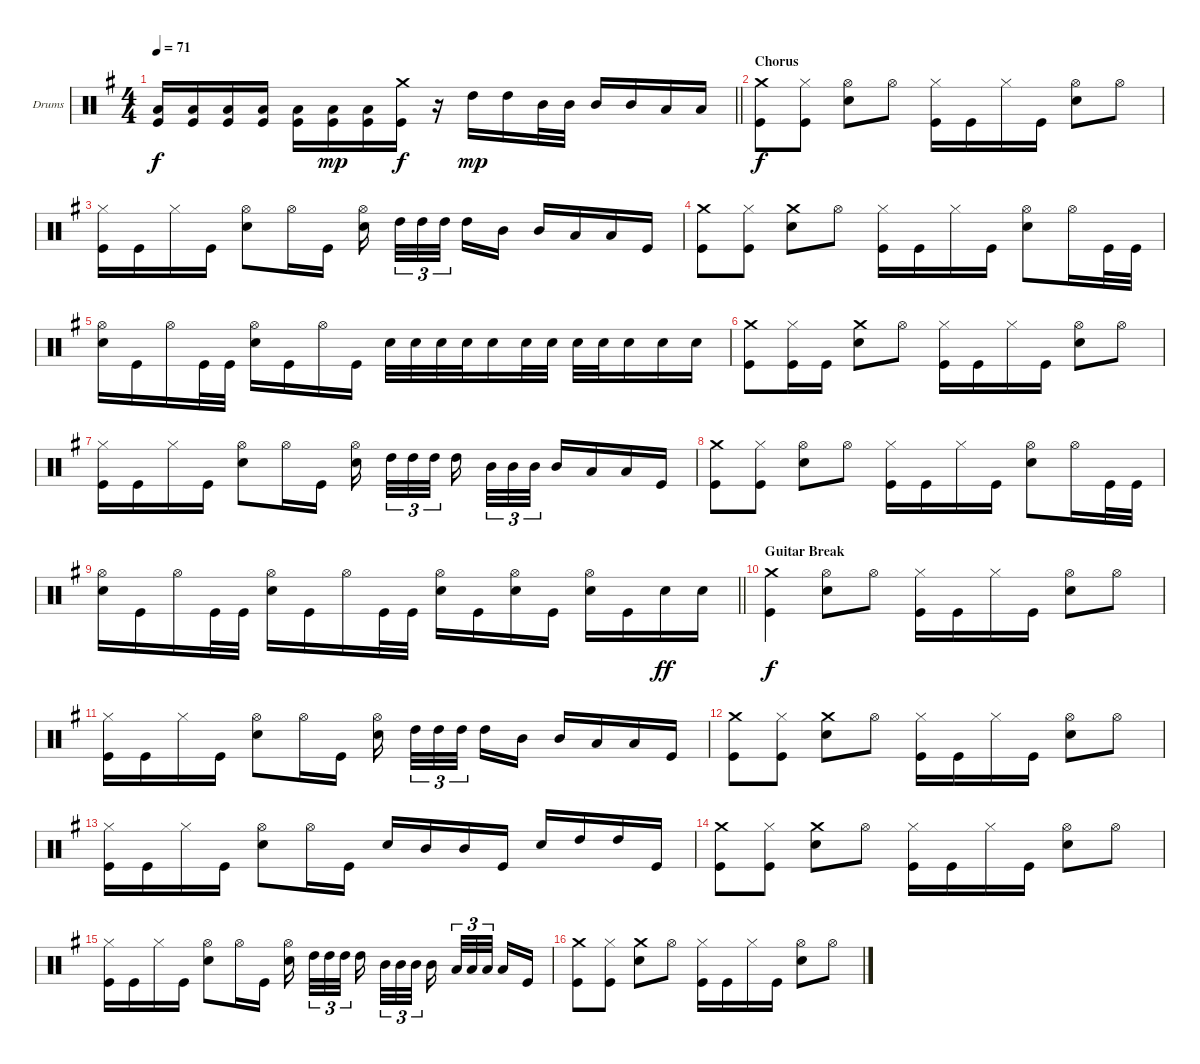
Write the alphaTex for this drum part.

\bracketExtendMode groupsimilarinstruments
\firstSystemTrackNameOrientation horizontal
\otherSystemsTrackNameOrientation horizontal
\track ("Барабаны" "Drums") {instrument percussion}
\staff {score}
\articulation defaults
\ts (4 4)
\tempo 71
\clef neutral
\barLineRight lightlight
\ks eminor
("Kick (hit)" "Low Tom (hit)").16{dy f} ("Kick (hit)" "Low Tom (hit)").16 ("Kick (hit)" "Low Tom (hit)").16 ("Kick (hit)" "Low Tom (hit)").16 ("Low Tom (hit)" "Kick (hit)").16 ("Low Tom (hit)" "Kick (hit)").16{dy mp} ("Low Tom (hit)" "Kick (hit)").16 ("Crash medium (hit)" "Kick (hit)").16{dy f} r.16 "High Tom (hit)".16{dy mp} "High Tom (hit)".16 "Mid Tom (hit)".32 "Mid Tom (hit)".32 "Mid Tom (hit)".16 "Mid Tom (hit)".16 "Low Tom (hit)".16 "Low Tom (hit)".16 |
\section ("" "Chorus")
("Kick (hit)" "Crash medium (hit)").8{dy f} ("Hi-Hat (closed)" "Kick (hit)").8 ("Hi-Hat (open)" "Snare (hit) 2").8 "Hi-Hat (open)".8 ("Kick (hit)" "Hi-Hat (closed)").16 "Kick (hit)".16 "Hi-Hat (closed)".16 "Kick (hit)".16 ("Snare (hit) 2" "Hi-Hat (open)").8 "Hi-Hat (open)".8 |
("Kick (hit)" "Hi-Hat (closed)").16 "Kick (hit)".16 "Hi-Hat (closed)".16 "Kick (hit)".16 ("Hi-Hat (open)" "Snare (hit) 2").8 "Hi-Hat (open)".16 "Kick (hit)".16 ("Snare (hit) 2" "Hi-Hat (open)").16 "High Tom (hit)".32{tu (3 2)} "High Tom (hit)".32{tu (3 2)} "High Tom (hit)".32{tu (3 2)} "High Tom (hit)".16 "Mid Tom (hit)".16 "Mid Tom (hit)".16 "Low Tom (hit)".16 "Low Tom (hit)".16 "Kick (hit)".16 |
("Kick (hit)" "Crash medium (hit)").8 ("Hi-Hat (closed)" "Kick (hit)").8 ("Crash medium (hit)" "Snare (hit) 2").8 "Hi-Hat (open)".8 ("Kick (hit)" "Hi-Hat (closed)").16 "Kick (hit)".16 "Hi-Hat (closed)".16 "Kick (hit)".16 ("Snare (hit) 2" "Hi-Hat (open)").8 "Hi-Hat (open)".16 "Kick (hit)".32 "Kick (hit)".32 |
("Snare (hit) 2" "Hi-Hat (open)").16 "Kick (hit)".16 "Hi-Hat (open)".16 "Kick (hit)".32 "Kick (hit)".32 ("Snare (hit) 2" "Hi-Hat (open)").16 "Kick (hit)".16 "Hi-Hat (open)".16 "Kick (hit)".16 "Snare (hit) 2".32 "Snare (hit) 2".32 "Snare (hit) 2".32 "Snare (hit) 2".32 "Snare (hit) 2".16 "Snare (hit) 2".32 "Snare (hit) 2".32 "Snare (hit) 2".32 "Snare (hit) 2".32 "Snare (hit) 2".16 "Snare (hit) 2".16 "Snare (hit) 2".16 |
("Kick (hit)" "Crash medium (hit)").8 ("Hi-Hat (closed)" "Kick (hit)").16 "Kick (hit)".16 ("Crash medium (hit)" "Snare (hit) 2").8 "Hi-Hat (open)".8 ("Kick (hit)" "Hi-Hat (closed)").16 "Kick (hit)".16 "Hi-Hat (closed)".16 "Kick (hit)".16 ("Snare (hit) 2" "Hi-Hat (open)").8 "Hi-Hat (open)".8 |
("Kick (hit)" "Hi-Hat (closed)").16 "Kick (hit)".16 "Hi-Hat (closed)".16 "Kick (hit)".16 ("Hi-Hat (open)" "Snare (hit) 2").8 "Hi-Hat (open)".16 "Kick (hit)".16 ("Snare (hit) 2" "Hi-Hat (open)").16 "High Tom (hit)".32{tu (3 2)} "High Tom (hit)".32{tu (3 2)} "High Tom (hit)".32{tu (3 2)} "High Tom (hit)".16 "Mid Tom (hit)".32{tu (3 2)} "Mid Tom (hit)".32{tu (3 2)} "Mid Tom (hit)".32{tu (3 2)} "Mid Tom (hit)".16 "Low Tom (hit)".16 "Low Tom (hit)".16 "Kick (hit)".16 |
("Kick (hit)" "Crash medium (hit)").8 ("Hi-Hat (closed)" "Kick (hit)").8 ("Hi-Hat (open)" "Snare (hit) 2").8 "Hi-Hat (open)".8 ("Kick (hit)" "Hi-Hat (closed)").16 "Kick (hit)".16 "Hi-Hat (closed)".16 "Kick (hit)".16 ("Snare (hit) 2" "Hi-Hat (open)").8 "Hi-Hat (open)".16 "Kick (hit)".32 "Kick (hit)".32 |
\barLineRight lightlight
("Snare (hit) 2" "Hi-Hat (open)").16 "Kick (hit)".16 "Hi-Hat (open)".16 "Kick (hit)".32 "Kick (hit)".32 ("Snare (hit) 2" "Hi-Hat (open)").16 "Kick (hit)".16 "Hi-Hat (open)".16 "Kick (hit)".32 "Kick (hit)".32 ("Snare (hit) 2" "Hi-Hat (open)").16 "Kick (hit)".16 ("Snare (hit) 2" "Hi-Hat (open)").16 "Kick (hit)".16 ("Snare (hit) 2" "Hi-Hat (open)").16 "Kick (hit)".16 "Snare (hit) 2".16{dy ff} "Snare (hit) 2".16 |
\section ("" "Guitar Break")
("Kick (hit)" "Crash medium (hit)").4{dy f} ("Snare (hit) 2" "Hi-Hat (open)").8 "Hi-Hat (open)".8 ("Kick (hit)" "Hi-Hat (closed)").16 "Kick (hit)".16 "Hi-Hat (closed)".16 "Kick (hit)".16 ("Snare (hit) 2" "Hi-Hat (open)").8 "Hi-Hat (open)".8 |
("Kick (hit)" "Hi-Hat (closed)").16 "Kick (hit)".16 "Hi-Hat (closed)".16 "Kick (hit)".16 ("Snare (hit) 2" "Hi-Hat (open)").8 "Hi-Hat (open)".16 "Kick (hit)".16 ("Snare (hit) 2" "Hi-Hat (open)").16 "High Tom (hit)".32{tu (3 2)} "High Tom (hit)".32{tu (3 2)} "High Tom (hit)".32{tu (3 2)} "High Tom (hit)".16 "Mid Tom (hit)".16 "Mid Tom (hit)".16 "Low Tom (hit)".16 "Low Tom (hit)".16 "Kick (hit)".16 |
("Kick (hit)" "Crash medium (hit)").8 ("Hi-Hat (closed)" "Kick (hit)").8 ("Snare (hit) 2" "Crash medium (hit)").8 "Hi-Hat (open)".8 ("Kick (hit)" "Hi-Hat (closed)").16 "Kick (hit)".16 "Hi-Hat (closed)".16 "Kick (hit)".16 ("Snare (hit) 2" "Hi-Hat (open)").8 "Hi-Hat (open)".8 |
("Kick (hit)" "Hi-Hat (closed)").16 "Kick (hit)".16 "Hi-Hat (closed)".16 "Kick (hit)".16 ("Snare (hit) 2" "Hi-Hat (open)").8 "Hi-Hat (open)".16 "Kick (hit)".16 "Snare (hit) 2".16 "Mid Tom (hit)".16 "Mid Tom (hit)".16 "Kick (hit)".16 "Snare (hit) 2".16 "High Tom (hit)".16 "High Tom (hit)".16 "Kick (hit)".16 |
("Kick (hit)" "Crash medium (hit)").8 ("Hi-Hat (closed)" "Kick (hit)").8 ("Snare (hit) 2" "Crash medium (hit)").8 "Hi-Hat (open)".8 ("Kick (hit)" "Hi-Hat (closed)").16 "Kick (hit)".16 "Hi-Hat (closed)".16 "Kick (hit)".16 ("Snare (hit) 2" "Hi-Hat (open)").8 "Hi-Hat (open)".8 |
("Kick (hit)" "Hi-Hat (closed)").16 "Kick (hit)".16 "Hi-Hat (closed)".16 "Kick (hit)".16 ("Snare (hit) 2" "Hi-Hat (open)").8 "Hi-Hat (open)".16 "Kick (hit)".16 ("Snare (hit) 2" "Hi-Hat (open)").16 "High Tom (hit)".32{tu (3 2)} "High Tom (hit)".32{tu (3 2)} "High Tom (hit)".32{tu (3 2)} "High Tom (hit)".16 "Mid Tom (hit)".32{tu (3 2)} "Mid Tom (hit)".32{tu (3 2)} "Mid Tom (hit)".32{tu (3 2)} "Mid Tom (hit)".16 "Low Tom (hit)".32{tu (3 2)} "Low Tom (hit)".32{tu (3 2)} "Low Tom (hit)".32{tu (3 2)} "Low Tom (hit)".16 "Kick (hit)".16 |
("Kick (hit)" "Crash medium (hit)").8 ("Hi-Hat (closed)" "Kick (hit)").8 ("Snare (hit) 2" "Crash medium (hit)").8 "Hi-Hat (open)".8 ("Kick (hit)" "Hi-Hat (closed)").16 "Kick (hit)".16 "Hi-Hat (closed)".16 "Kick (hit)".16 ("Snare (hit) 2" "Hi-Hat (open)").8 "Hi-Hat (open)".8
